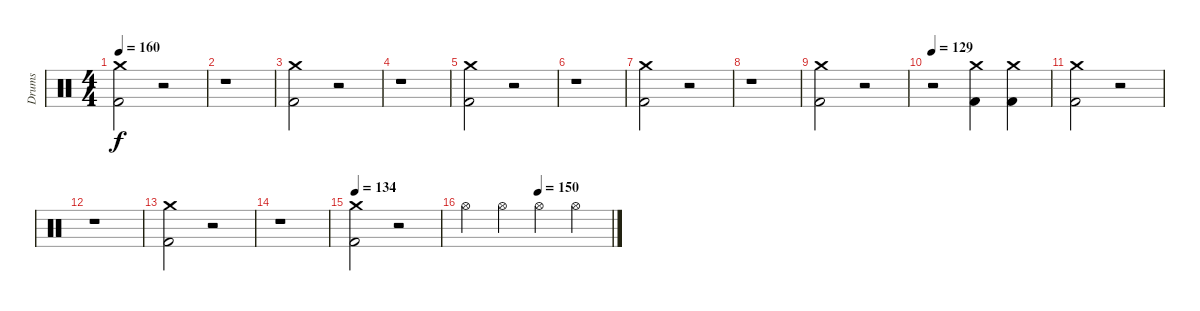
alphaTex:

\track ("Drums" "Drums") {instrument percussion}
\staff {score}
\articulation defaults
\ts (4 4)
\tempo 160
\tempo 128
\tempo 160
\clef neutral
\ks c
("Crash medium (hit)" "Kick (hit) 2").2{dy f} r.2 |
r.1 |
("Crash medium (hit)" "Kick (hit) 2").2 r.2 |
r.1 |
("Crash medium (hit)" "Kick (hit) 2").2 r.2 |
r.1 |
("Crash medium (hit)" "Kick (hit) 2").2 r.2 |
r.1 |
("Crash medium (hit)" "Kick (hit) 2").2 r.2 |
\tempo 129
r.2 ("Crash medium (hit)" "Kick (hit) 2").4 ("Crash medium (hit)" "Kick (hit) 2").4 |
("Crash medium (hit)" "Kick (hit) 2").2 r.2 |
r.1 |
("Crash medium (hit)" "Kick (hit) 2").2 r.2 |
r.1 |
\tempo 134
("Crash medium (hit)" "Kick (hit) 2").2 r.2 |
\tempo (150 0.5)
"Hi-Hat (open)".4 "Hi-Hat (open)".4 "Hi-Hat (open)".4 "Hi-Hat (open)".4
